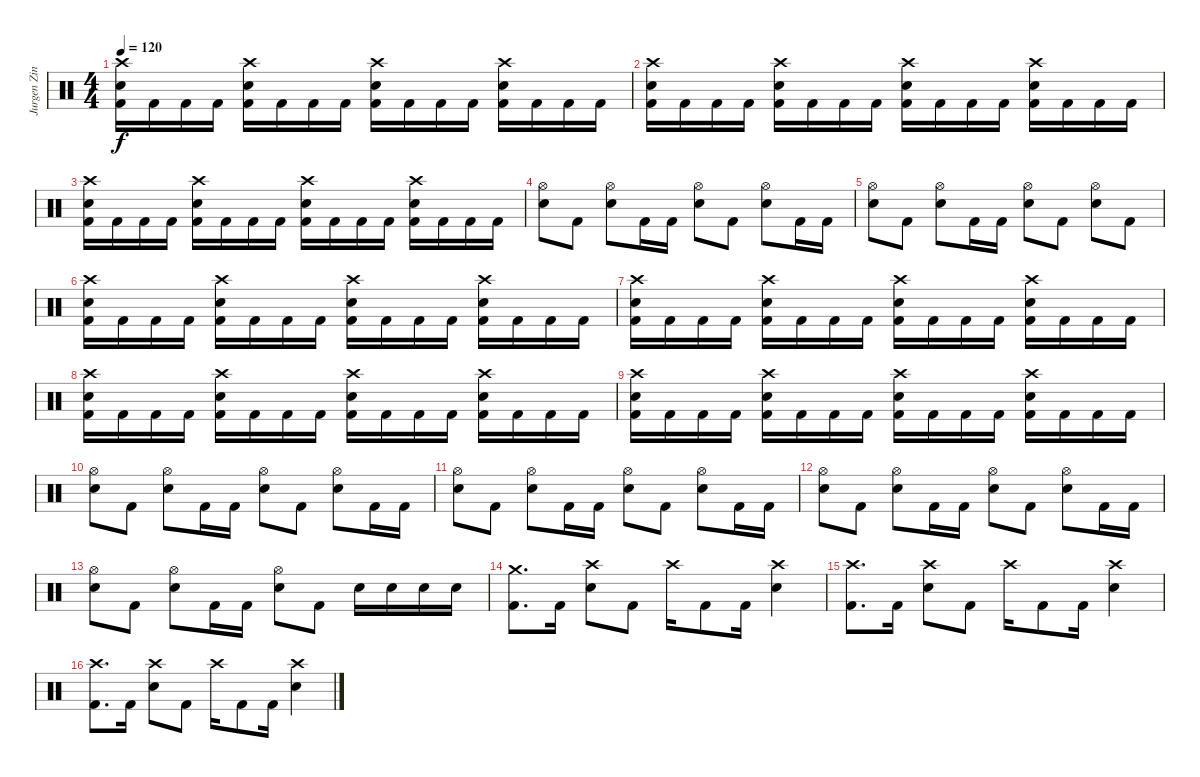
\track ("Jurgen Zing" "Jurgen Zin") {instrument percussion}
\staff {score}
\articulation defaults
\ts (4 4)
\tempo 120
\clef neutral
\ks c
("Crash high (hit)" "Electric Snare (hit)" "Kick (hit) 2").16{dy f} "Kick (hit) 2".16 "Kick (hit) 2".16 "Kick (hit) 2".16 ("Crash high (hit)" "Electric Snare (hit)" "Kick (hit) 2").16 "Kick (hit) 2".16 "Kick (hit) 2".16 "Kick (hit) 2".16 ("Crash high (hit)" "Electric Snare (hit)" "Kick (hit) 2").16 "Kick (hit) 2".16 "Kick (hit) 2".16 "Kick (hit) 2".16 ("Crash high (hit)" "Electric Snare (hit)" "Kick (hit) 2").16 "Kick (hit) 2".16 "Kick (hit) 2".16 "Kick (hit) 2".16 |
("Crash high (hit)" "Electric Snare (hit)" "Kick (hit) 2").16 "Kick (hit) 2".16 "Kick (hit) 2".16 "Kick (hit) 2".16 ("Crash high (hit)" "Electric Snare (hit)" "Kick (hit) 2").16 "Kick (hit) 2".16 "Kick (hit) 2".16 "Kick (hit) 2".16 ("Crash high (hit)" "Electric Snare (hit)" "Kick (hit) 2").16 "Kick (hit) 2".16 "Kick (hit) 2".16 "Kick (hit) 2".16 ("Crash high (hit)" "Electric Snare (hit)" "Kick (hit) 2").16 "Kick (hit) 2".16 "Kick (hit) 2".16 "Kick (hit) 2".16 |
("Crash high (hit)" "Electric Snare (hit)" "Kick (hit) 2").16 "Kick (hit) 2".16 "Kick (hit) 2".16 "Kick (hit) 2".16 ("Crash high (hit)" "Electric Snare (hit)" "Kick (hit) 2").16 "Kick (hit) 2".16 "Kick (hit) 2".16 "Kick (hit) 2".16 ("Crash high (hit)" "Electric Snare (hit)" "Kick (hit) 2").16 "Kick (hit) 2".16 "Kick (hit) 2".16 "Kick (hit) 2".16 ("Crash high (hit)" "Electric Snare (hit)" "Kick (hit) 2").16 "Kick (hit) 2".16 "Kick (hit) 2".16 "Kick (hit) 2".16 |
("Hi-Hat (open)" "Electric Snare (hit)").8 "Kick (hit) 2".8 ("Hi-Hat (open)" "Electric Snare (hit)").8 "Kick (hit) 2".16 "Kick (hit) 2".16 ("Hi-Hat (open)" "Electric Snare (hit)").8 "Kick (hit) 2".8 ("Hi-Hat (open)" "Electric Snare (hit)").8 "Kick (hit) 2".16 "Kick (hit) 2".16 |
("Hi-Hat (open)" "Electric Snare (hit)").8 "Kick (hit) 2".8 ("Hi-Hat (open)" "Electric Snare (hit)").8 "Kick (hit) 2".16 "Kick (hit) 2".16 ("Hi-Hat (open)" "Electric Snare (hit)").8 "Kick (hit) 2".8 ("Hi-Hat (open)" "Electric Snare (hit)").8 "Kick (hit) 2".8 |
("Crash high (hit)" "Electric Snare (hit)" "Kick (hit) 2").16 "Kick (hit) 2".16 "Kick (hit) 2".16 "Kick (hit) 2".16 ("Crash high (hit)" "Electric Snare (hit)" "Kick (hit) 2").16 "Kick (hit) 2".16 "Kick (hit) 2".16 "Kick (hit) 2".16 ("Crash high (hit)" "Electric Snare (hit)" "Kick (hit) 2").16 "Kick (hit) 2".16 "Kick (hit) 2".16 "Kick (hit) 2".16 ("Crash high (hit)" "Electric Snare (hit)" "Kick (hit) 2").16 "Kick (hit) 2".16 "Kick (hit) 2".16 "Kick (hit) 2".16 |
("Crash high (hit)" "Electric Snare (hit)" "Kick (hit) 2").16 "Kick (hit) 2".16 "Kick (hit) 2".16 "Kick (hit) 2".16 ("Crash high (hit)" "Electric Snare (hit)" "Kick (hit) 2").16 "Kick (hit) 2".16 "Kick (hit) 2".16 "Kick (hit) 2".16 ("Crash high (hit)" "Electric Snare (hit)" "Kick (hit) 2").16 "Kick (hit) 2".16 "Kick (hit) 2".16 "Kick (hit) 2".16 ("Crash high (hit)" "Electric Snare (hit)" "Kick (hit) 2").16 "Kick (hit) 2".16 "Kick (hit) 2".16 "Kick (hit) 2".16 |
("Crash high (hit)" "Electric Snare (hit)" "Kick (hit) 2").16 "Kick (hit) 2".16 "Kick (hit) 2".16 "Kick (hit) 2".16 ("Crash high (hit)" "Electric Snare (hit)" "Kick (hit) 2").16 "Kick (hit) 2".16 "Kick (hit) 2".16 "Kick (hit) 2".16 ("Crash high (hit)" "Electric Snare (hit)" "Kick (hit) 2").16 "Kick (hit) 2".16 "Kick (hit) 2".16 "Kick (hit) 2".16 ("Crash high (hit)" "Electric Snare (hit)" "Kick (hit) 2").16 "Kick (hit) 2".16 "Kick (hit) 2".16 "Kick (hit) 2".16 |
("Crash high (hit)" "Electric Snare (hit)" "Kick (hit) 2").16 "Kick (hit) 2".16 "Kick (hit) 2".16 "Kick (hit) 2".16 ("Crash high (hit)" "Electric Snare (hit)" "Kick (hit) 2").16 "Kick (hit) 2".16 "Kick (hit) 2".16 "Kick (hit) 2".16 ("Crash high (hit)" "Electric Snare (hit)" "Kick (hit) 2").16 "Kick (hit) 2".16 "Kick (hit) 2".16 "Kick (hit) 2".16 ("Crash high (hit)" "Electric Snare (hit)" "Kick (hit) 2").16 "Kick (hit) 2".16 "Kick (hit) 2".16 "Kick (hit) 2".16 |
("Hi-Hat (open)" "Electric Snare (hit)").8 "Kick (hit) 2".8 ("Hi-Hat (open)" "Electric Snare (hit)").8 "Kick (hit) 2".16 "Kick (hit) 2".16 ("Hi-Hat (open)" "Electric Snare (hit)").8 "Kick (hit) 2".8 ("Hi-Hat (open)" "Electric Snare (hit)").8 "Kick (hit) 2".16 "Kick (hit) 2".16 |
("Hi-Hat (open)" "Electric Snare (hit)").8 "Kick (hit) 2".8 ("Hi-Hat (open)" "Electric Snare (hit)").8 "Kick (hit) 2".16 "Kick (hit) 2".16 ("Hi-Hat (open)" "Electric Snare (hit)").8 "Kick (hit) 2".8 ("Hi-Hat (open)" "Electric Snare (hit)").8 "Kick (hit) 2".16 "Kick (hit) 2".16 |
("Hi-Hat (open)" "Electric Snare (hit)").8 "Kick (hit) 2".8 ("Hi-Hat (open)" "Electric Snare (hit)").8 "Kick (hit) 2".16 "Kick (hit) 2".16 ("Hi-Hat (open)" "Electric Snare (hit)").8 "Kick (hit) 2".8 ("Hi-Hat (open)" "Electric Snare (hit)").8 "Kick (hit) 2".16 "Kick (hit) 2".16 |
("Hi-Hat (open)" "Electric Snare (hit)").8 "Kick (hit) 2".8 ("Hi-Hat (open)" "Electric Snare (hit)").8 "Kick (hit) 2".16 "Kick (hit) 2".16 ("Hi-Hat (open)" "Electric Snare (hit)").8 "Kick (hit) 2".8 "Electric Snare (hit)".16 "Electric Snare (hit)".16 "Electric Snare (hit)".16 "Electric Snare (hit)".16 |
("Crash medium (hit)" "Kick (hit) 2").8{d} "Kick (hit) 2".16 ("Crash high (hit)" "Electric Snare (hit)").8 "Kick (hit) 2".8 "Crash high (hit)".16 "Kick (hit) 2".8 "Kick (hit) 2".16 ("Crash high (hit)" "Electric Snare (hit)").4 |
("Crash high (hit)" "Kick (hit) 2").8{d} "Kick (hit) 2".16 ("Crash high (hit)" "Electric Snare (hit)").8 "Kick (hit) 2".8 "Crash high (hit)".16 "Kick (hit) 2".8 "Kick (hit) 2".16 ("Crash high (hit)" "Electric Snare (hit)").4 |
("Crash high (hit)" "Kick (hit) 2").8{d} "Kick (hit) 2".16 ("Crash high (hit)" "Electric Snare (hit)").8 "Kick (hit) 2".8 "Crash high (hit)".16 "Kick (hit) 2".8 "Kick (hit) 2".16 ("Crash high (hit)" "Electric Snare (hit)").4
